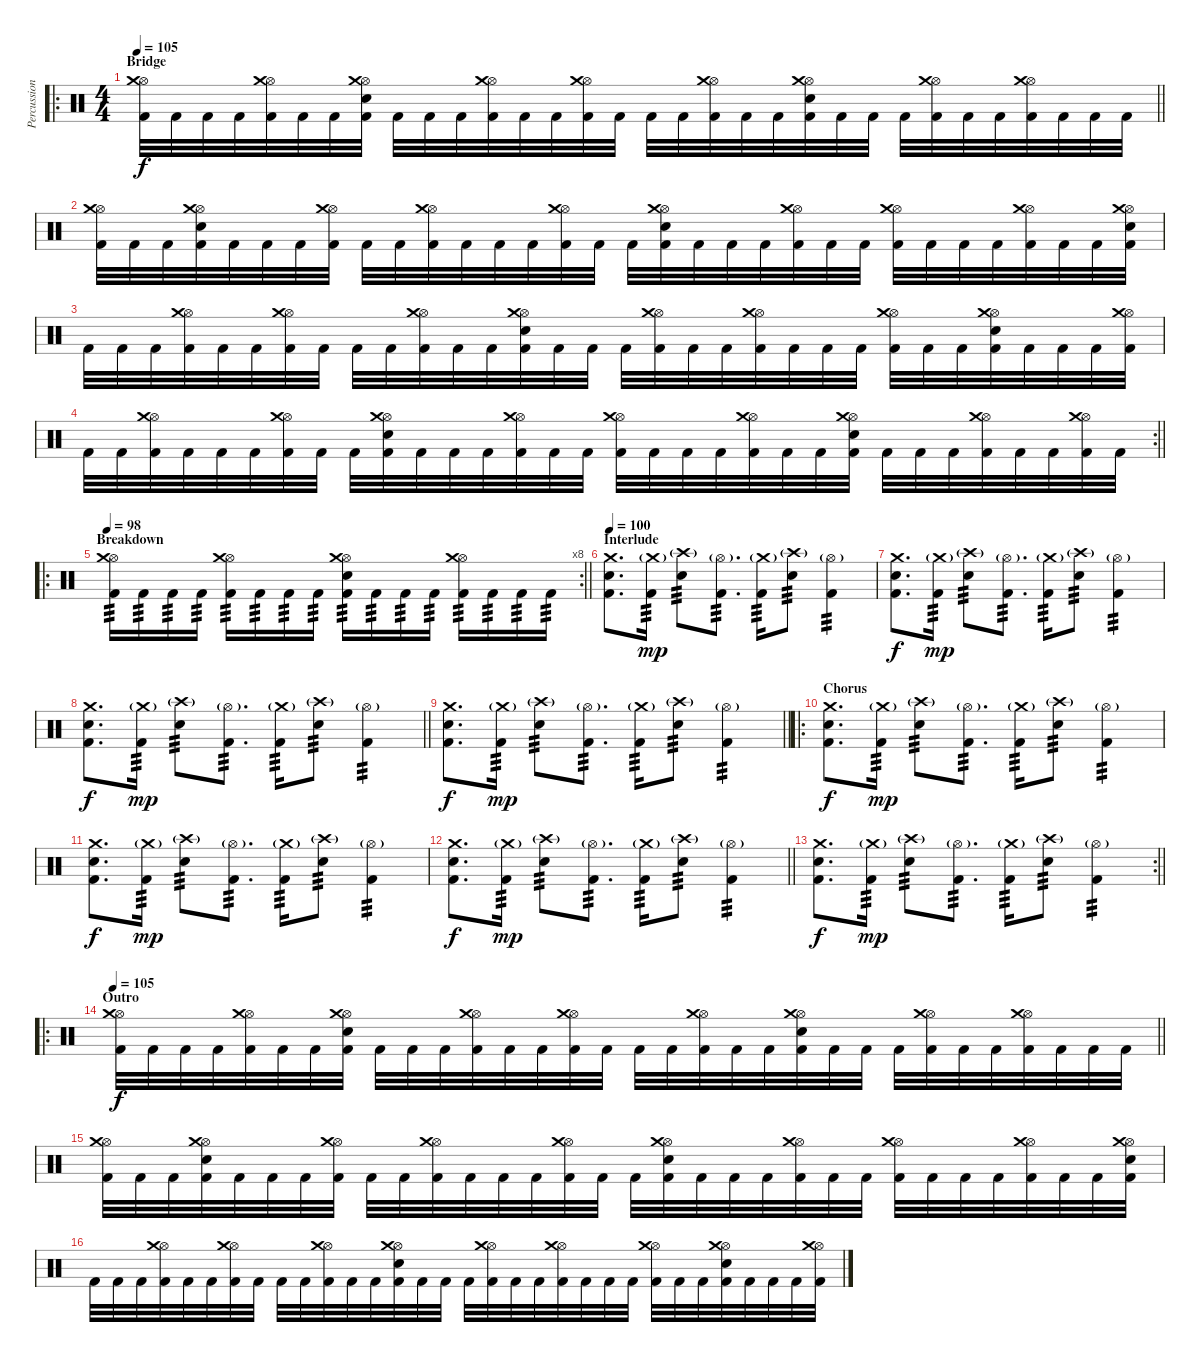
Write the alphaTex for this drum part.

\track ("Percussions" "Percussion") {instrument percussion}
\staff {score}
\articulation defaults
\ro
\ts (4 4)
\section ("" "Bridge")
\tempo 102
\tempo 105
\clef neutral
\barLineRight lightlight
\ks c
("Hi-Hat (open)" "Crash medium (hit)" "Kick (hit) 2").32{dy f} "Kick (hit) 2".32 "Kick (hit) 2".32 "Kick (hit) 2".32 ("Hi-Hat (open)" "Crash medium (hit)" "Kick (hit) 2").32 "Kick (hit) 2".32 "Kick (hit) 2".32 ("Hi-Hat (open)" "Crash medium (hit)" "Electric Snare (hit)" "Kick (hit) 2").32 "Kick (hit) 2".32 "Kick (hit) 2".32 "Kick (hit) 2".32 ("Hi-Hat (open)" "Crash medium (hit)" "Kick (hit) 2").32 "Kick (hit) 2".32 "Kick (hit) 2".32 ("Hi-Hat (open)" "Crash medium (hit)" "Kick (hit) 2").32 "Kick (hit) 2".32 "Kick (hit) 2".32 "Kick (hit) 2".32 ("Hi-Hat (open)" "Crash medium (hit)" "Kick (hit) 2").32 "Kick (hit) 2".32 "Kick (hit) 2".32 ("Hi-Hat (open)" "Crash medium (hit)" "Electric Snare (hit)" "Kick (hit) 2").32 "Kick (hit) 2".32 "Kick (hit) 2".32 "Kick (hit) 2".32 ("Hi-Hat (open)" "Crash medium (hit)" "Kick (hit) 2").32 "Kick (hit) 2".32 "Kick (hit) 2".32 ("Hi-Hat (open)" "Crash medium (hit)" "Kick (hit) 2").32 "Kick (hit) 2".32 "Kick (hit) 2".32 "Kick (hit) 2".32 |
("Hi-Hat (open)" "Crash medium (hit)" "Kick (hit) 2").32 "Kick (hit) 2".32 "Kick (hit) 2".32 ("Hi-Hat (open)" "Crash medium (hit)" "Electric Snare (hit)" "Kick (hit) 2").32 "Kick (hit) 2".32 "Kick (hit) 2".32 "Kick (hit) 2".32 ("Hi-Hat (open)" "Crash medium (hit)" "Kick (hit) 2").32 "Kick (hit) 2".32 "Kick (hit) 2".32 ("Hi-Hat (open)" "Crash medium (hit)" "Kick (hit) 2").32 "Kick (hit) 2".32 "Kick (hit) 2".32 "Kick (hit) 2".32 ("Hi-Hat (open)" "Crash medium (hit)" "Kick (hit) 2").32 "Kick (hit) 2".32 "Kick (hit) 2".32 ("Hi-Hat (open)" "Crash medium (hit)" "Electric Snare (hit)" "Kick (hit) 2").32 "Kick (hit) 2".32 "Kick (hit) 2".32 "Kick (hit) 2".32 ("Hi-Hat (open)" "Crash medium (hit)" "Kick (hit) 2").32 "Kick (hit) 2".32 "Kick (hit) 2".32 ("Hi-Hat (open)" "Crash medium (hit)" "Kick (hit) 2").32 "Kick (hit) 2".32 "Kick (hit) 2".32 "Kick (hit) 2".32 ("Hi-Hat (open)" "Crash medium (hit)" "Kick (hit) 2").32 "Kick (hit) 2".32 "Kick (hit) 2".32 ("Hi-Hat (open)" "Crash medium (hit)" "Electric Snare (hit)" "Kick (hit) 2").32 |
"Kick (hit) 2".32 "Kick (hit) 2".32 "Kick (hit) 2".32 ("Hi-Hat (open)" "Crash medium (hit)" "Kick (hit) 2").32 "Kick (hit) 2".32 "Kick (hit) 2".32 ("Hi-Hat (open)" "Crash medium (hit)" "Kick (hit) 2").32 "Kick (hit) 2".32 "Kick (hit) 2".32 "Kick (hit) 2".32 ("Hi-Hat (open)" "Crash medium (hit)" "Kick (hit) 2").32 "Kick (hit) 2".32 "Kick (hit) 2".32 ("Hi-Hat (open)" "Crash medium (hit)" "Electric Snare (hit)" "Kick (hit) 2").32 "Kick (hit) 2".32 "Kick (hit) 2".32 "Kick (hit) 2".32 ("Hi-Hat (open)" "Crash medium (hit)" "Kick (hit) 2").32 "Kick (hit) 2".32 "Kick (hit) 2".32 ("Hi-Hat (open)" "Crash medium (hit)" "Kick (hit) 2").32 "Kick (hit) 2".32 "Kick (hit) 2".32 "Kick (hit) 2".32 ("Hi-Hat (open)" "Crash medium (hit)" "Kick (hit) 2").32 "Kick (hit) 2".32 "Kick (hit) 2".32 ("Hi-Hat (open)" "Crash medium (hit)" "Electric Snare (hit)" "Kick (hit) 2").32 "Kick (hit) 2".32 "Kick (hit) 2".32 "Kick (hit) 2".32 ("Hi-Hat (open)" "Crash medium (hit)" "Kick (hit) 2").32 |
\rc 2
\barLineRight lightlight "Kick (hit) 2".32 "Kick (hit) 2".32
("Hi-Hat (open)" "Crash medium (hit)" "Kick (hit) 2").32 "Kick (hit) 2".32 "Kick (hit) 2".32 "Kick (hit) 2".32 ("Hi-Hat (open)" "Crash medium (hit)" "Kick (hit) 2").32 "Kick (hit) 2".32 "Kick (hit) 2".32 ("Hi-Hat (open)" "Crash medium (hit)" "Electric Snare (hit)" "Kick (hit) 2").32 "Kick (hit) 2".32 "Kick (hit) 2".32 "Kick (hit) 2".32 ("Hi-Hat (open)" "Crash medium (hit)" "Kick (hit) 2").32 "Kick (hit) 2".32 "Kick (hit) 2".32 ("Hi-Hat (open)" "Crash medium (hit)" "Kick (hit) 2").32 "Kick (hit) 2".32 "Kick (hit) 2".32 "Kick (hit) 2".32 ("Hi-Hat (open)" "Crash medium (hit)" "Kick (hit) 2").32 "Kick (hit) 2".32 "Kick (hit) 2".32 ("Hi-Hat (open)" "Crash medium (hit)" "Electric Snare (hit)" "Kick (hit) 2").32 "Kick (hit) 2".32 "Kick (hit) 2".32 "Kick (hit) 2".32 ("Hi-Hat (open)" "Crash medium (hit)" "Kick (hit) 2").32 "Kick (hit) 2".32 "Kick (hit) 2".32 ("Hi-Hat (open)" "Crash medium (hit)" "Kick (hit) 2").32 "Kick (hit) 2".32 |
\ro
\rc 8
\section ("" "Breakdown")
\tempo 98
\barLineRight lightlight
("Hi-Hat (open)" "Crash medium (hit)" "Kick (hit) 2").16{tp 3} "Kick (hit) 2".16{tp 3} "Kick (hit) 2".16{tp 3} "Kick (hit) 2".16{tp 3} ("Hi-Hat (open)" "Crash medium (hit)" "Kick (hit) 2").16{tp 3} "Kick (hit) 2".16{tp 3} "Kick (hit) 2".16{tp 3} "Kick (hit) 2".16{tp 3} ("Hi-Hat (open)" "Crash medium (hit)" "Snare (hit) 2" "Kick (hit) 2").16{tp 3} "Kick (hit) 2".16{tp 3} "Kick (hit) 2".16{tp 3} "Kick (hit) 2".16{tp 3} ("Hi-Hat (open)" "Crash medium (hit)" "Kick (hit) 2").16{tp 3} "Kick (hit) 2".16{tp 3} "Kick (hit) 2".16{tp 3} "Kick (hit) 2".16{tp 3} |
\section ("" "Interlude")
\tempo 100
("Crash medium (hit)" "Electric Snare (hit)" "Kick (hit) 2").8{d} ("Crash medium (hit)"{g} "Kick (hit) 2").16{tp 3 dy mp} ("Crash high (hit)"{g} "Electric Snare (hit)").8{tp 3} ("Hi-Hat (open)"{g} "Kick (hit) 2").8{d tp 3} ("Crash medium (hit)"{g} "Kick (hit) 2").16{tp 3} ("Crash high (hit)"{g} "Electric Snare (hit)").8{tp 3} ("Hi-Hat (open)"{g} "Kick (hit) 2").4{tp 3} |
("Crash medium (hit)" "Electric Snare (hit)" "Kick (hit) 2").8{d dy f} ("Crash medium (hit)"{g} "Kick (hit) 2").16{tp 3 dy mp} ("Crash high (hit)"{g} "Electric Snare (hit)").8{tp 3} ("Hi-Hat (open)"{g} "Kick (hit) 2").8{d tp 3} ("Crash medium (hit)"{g} "Kick (hit) 2").16{tp 3} ("Crash high (hit)"{g} "Electric Snare (hit)").8{tp 3} ("Hi-Hat (open)"{g} "Kick (hit) 2").4{tp 3} |
\barLineRight lightlight
("Crash medium (hit)" "Electric Snare (hit)" "Kick (hit) 2").8{d dy f} ("Crash medium (hit)"{g} "Kick (hit) 2").16{tp 3 dy mp} ("Crash high (hit)"{g} "Electric Snare (hit)").8{tp 3} ("Hi-Hat (open)"{g} "Kick (hit) 2").8{d tp 3} ("Crash medium (hit)"{g} "Kick (hit) 2").16{tp 3} ("Crash high (hit)"{g} "Electric Snare (hit)").8{tp 3} ("Hi-Hat (open)"{g} "Kick (hit) 2").4{tp 3} |
\section ("" "")
\barLineRight lightlight
("Crash medium (hit)" "Electric Snare (hit)" "Kick (hit) 2").8{d dy f} ("Crash medium (hit)"{g} "Kick (hit) 2").16{tp 3 dy mp} ("Crash high (hit)"{g} "Electric Snare (hit)").8{tp 3} ("Hi-Hat (open)"{g} "Kick (hit) 2").8{d tp 3} ("Crash medium (hit)"{g} "Kick (hit) 2").16{tp 3} ("Crash high (hit)"{g} "Electric Snare (hit)").8{tp 3} ("Hi-Hat (open)"{g} "Kick (hit) 2").4{tp 3} |
\ro
\section ("" "Chorus")
("Crash medium (hit)" "Electric Snare (hit)" "Kick (hit) 2").8{d dy f} ("Crash medium (hit)"{g} "Kick (hit) 2").16{tp 3 dy mp} ("Crash high (hit)"{g} "Electric Snare (hit)").8{tp 3} ("Hi-Hat (open)"{g} "Kick (hit) 2").8{d tp 3} ("Crash medium (hit)"{g} "Kick (hit) 2").16{tp 3} ("Crash high (hit)"{g} "Electric Snare (hit)").8{tp 3} ("Hi-Hat (open)"{g} "Kick (hit) 2").4{tp 3} |
("Crash medium (hit)" "Electric Snare (hit)" "Kick (hit) 2").8{d dy f} ("Crash medium (hit)"{g} "Kick (hit) 2").16{tp 3 dy mp} ("Crash high (hit)"{g} "Electric Snare (hit)").8{tp 3} ("Hi-Hat (open)"{g} "Kick (hit) 2").8{d tp 3} ("Crash medium (hit)"{g} "Kick (hit) 2").16{tp 3} ("Crash high (hit)"{g} "Electric Snare (hit)").8{tp 3} ("Hi-Hat (open)"{g} "Kick (hit) 2").4{tp 3} |
\barLineRight lightlight
("Crash medium (hit)" "Electric Snare (hit)" "Kick (hit) 2").8{d dy f} ("Crash medium (hit)"{g} "Kick (hit) 2").16{tp 3 dy mp} ("Crash high (hit)"{g} "Electric Snare (hit)").8{tp 3} ("Hi-Hat (open)"{g} "Kick (hit) 2").8{d tp 3} ("Crash medium (hit)"{g} "Kick (hit) 2").16{tp 3} ("Crash high (hit)"{g} "Electric Snare (hit)").8{tp 3} ("Hi-Hat (open)"{g} "Kick (hit) 2").4{tp 3} |
\rc 2
\barLineRight lightlight
("Crash medium (hit)" "Electric Snare (hit)" "Kick (hit) 2").8{d dy f} ("Crash medium (hit)"{g} "Kick (hit) 2").16{tp 3 dy mp} ("Crash high (hit)"{g} "Electric Snare (hit)").8{tp 3} ("Hi-Hat (open)"{g} "Kick (hit) 2").8{d tp 3} ("Crash medium (hit)"{g} "Kick (hit) 2").16{tp 3} ("Crash high (hit)"{g} "Electric Snare (hit)").8{tp 3} ("Hi-Hat (open)"{g} "Kick (hit) 2").4{tp 3} |
\ro
\section ("" "Outro")
\tempo 98
\tempo 105
\barLineRight lightlight
("Hi-Hat (open)" "Crash medium (hit)" "Kick (hit) 2").32{dy f} "Kick (hit) 2".32 "Kick (hit) 2".32 "Kick (hit) 2".32 ("Hi-Hat (open)" "Crash medium (hit)" "Kick (hit) 2").32 "Kick (hit) 2".32 "Kick (hit) 2".32 ("Hi-Hat (open)" "Crash medium (hit)" "Electric Snare (hit)" "Kick (hit) 2").32 "Kick (hit) 2".32 "Kick (hit) 2".32 "Kick (hit) 2".32 ("Hi-Hat (open)" "Crash medium (hit)" "Kick (hit) 2").32 "Kick (hit) 2".32 "Kick (hit) 2".32 ("Hi-Hat (open)" "Crash medium (hit)" "Kick (hit) 2").32 "Kick (hit) 2".32 "Kick (hit) 2".32 "Kick (hit) 2".32 ("Hi-Hat (open)" "Crash medium (hit)" "Kick (hit) 2").32 "Kick (hit) 2".32 "Kick (hit) 2".32 ("Hi-Hat (open)" "Crash medium (hit)" "Electric Snare (hit)" "Kick (hit) 2").32 "Kick (hit) 2".32 "Kick (hit) 2".32 "Kick (hit) 2".32 ("Hi-Hat (open)" "Crash medium (hit)" "Kick (hit) 2").32 "Kick (hit) 2".32 "Kick (hit) 2".32 ("Hi-Hat (open)" "Crash medium (hit)" "Kick (hit) 2").32 "Kick (hit) 2".32 "Kick (hit) 2".32 "Kick (hit) 2".32 |
("Hi-Hat (open)" "Crash medium (hit)" "Kick (hit) 2").32 "Kick (hit) 2".32 "Kick (hit) 2".32 ("Hi-Hat (open)" "Crash medium (hit)" "Electric Snare (hit)" "Kick (hit) 2").32 "Kick (hit) 2".32 "Kick (hit) 2".32 "Kick (hit) 2".32 ("Hi-Hat (open)" "Crash medium (hit)" "Kick (hit) 2").32 "Kick (hit) 2".32 "Kick (hit) 2".32 ("Hi-Hat (open)" "Crash medium (hit)" "Kick (hit) 2").32 "Kick (hit) 2".32 "Kick (hit) 2".32 "Kick (hit) 2".32 ("Hi-Hat (open)" "Crash medium (hit)" "Kick (hit) 2").32 "Kick (hit) 2".32 "Kick (hit) 2".32 ("Hi-Hat (open)" "Crash medium (hit)" "Electric Snare (hit)" "Kick (hit) 2").32 "Kick (hit) 2".32 "Kick (hit) 2".32 "Kick (hit) 2".32 ("Hi-Hat (open)" "Crash medium (hit)" "Kick (hit) 2").32 "Kick (hit) 2".32 "Kick (hit) 2".32 ("Hi-Hat (open)" "Crash medium (hit)" "Kick (hit) 2").32 "Kick (hit) 2".32 "Kick (hit) 2".32 "Kick (hit) 2".32 ("Hi-Hat (open)" "Crash medium (hit)" "Kick (hit) 2").32 "Kick (hit) 2".32 "Kick (hit) 2".32 ("Hi-Hat (open)" "Crash medium (hit)" "Electric Snare (hit)" "Kick (hit) 2").32 |
"Kick (hit) 2".32 "Kick (hit) 2".32 "Kick (hit) 2".32 ("Hi-Hat (open)" "Crash medium (hit)" "Kick (hit) 2").32 "Kick (hit) 2".32 "Kick (hit) 2".32 ("Hi-Hat (open)" "Crash medium (hit)" "Kick (hit) 2").32 "Kick (hit) 2".32 "Kick (hit) 2".32 "Kick (hit) 2".32 ("Hi-Hat (open)" "Crash medium (hit)" "Kick (hit) 2").32 "Kick (hit) 2".32 "Kick (hit) 2".32 ("Hi-Hat (open)" "Crash medium (hit)" "Electric Snare (hit)" "Kick (hit) 2").32 "Kick (hit) 2".32 "Kick (hit) 2".32 "Kick (hit) 2".32 ("Hi-Hat (open)" "Crash medium (hit)" "Kick (hit) 2").32 "Kick (hit) 2".32 "Kick (hit) 2".32 ("Hi-Hat (open)" "Crash medium (hit)" "Kick (hit) 2").32 "Kick (hit) 2".32 "Kick (hit) 2".32 "Kick (hit) 2".32 ("Hi-Hat (open)" "Crash medium (hit)" "Kick (hit) 2").32 "Kick (hit) 2".32 "Kick (hit) 2".32 ("Hi-Hat (open)" "Crash medium (hit)" "Electric Snare (hit)" "Kick (hit) 2").32 "Kick (hit) 2".32 "Kick (hit) 2".32 "Kick (hit) 2".32 ("Hi-Hat (open)" "Crash medium (hit)" "Kick (hit) 2").32
